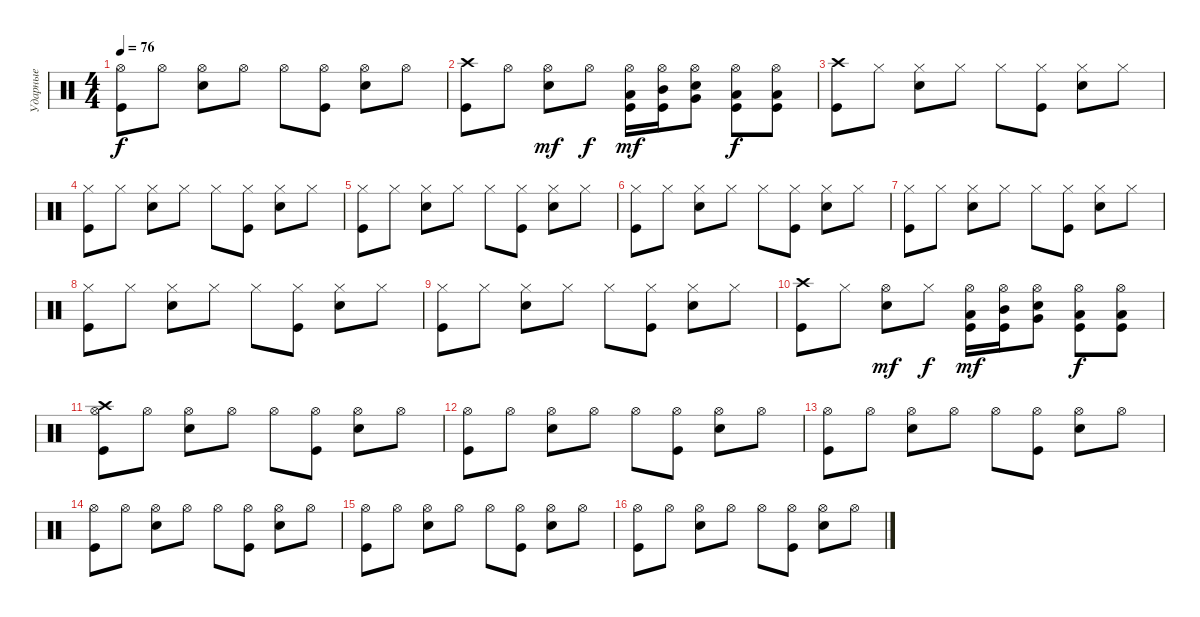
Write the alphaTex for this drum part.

\track ("Ударные" "Ударные") {instrument percussion}
\staff {score}
\articulation defaults
\ts (4 4)
\tempo 76
\clef neutral
\ks c
("Hi-Hat (open)" "Kick (hit)").8{dy f} "Hi-Hat (open)".8 ("Hi-Hat (open)" "Electric Snare (hit)").8 "Hi-Hat (open)".8 "Hi-Hat (open)".8 ("Hi-Hat (open)" "Kick (hit)").8 ("Hi-Hat (open)" "Electric Snare (hit)").8 "Hi-Hat (open)".8 |
("Kick (hit)" "Crash high (hit)").8 "Hi-Hat (open)".8 ("Electric Snare (hit)" "Hi-Hat (open)").8{dy mf} "Hi-Hat (open)".8{dy f} ("Kick (hit)" "Hi-Hat (open)" "Low Tom (hit)").16{dy mf} ("Kick (hit)" "Hi-Hat (open)" "Mid Tom (hit)").16 ("Electric Snare (hit)" "Hi-Hat (open)" "Very Low Tom (hit)").8 ("Kick (hit)" "Hi-Hat (open)" "Low Floor Tom (hit)").8{dy f} ("Kick (hit)" "Hi-Hat (open)" "Low Floor Tom (hit)").8 |
("Crash high (hit)" "Kick (hit)").8 "Hi-Hat (closed)".8 ("Hi-Hat (closed)" "Electric Snare (hit)").8 "Hi-Hat (closed)".8 "Hi-Hat (closed)".8 ("Hi-Hat (closed)" "Kick (hit)").8 ("Hi-Hat (closed)" "Electric Snare (hit)").8 "Hi-Hat (closed)".8 |
("Hi-Hat (closed)" "Kick (hit)").8 "Hi-Hat (closed)".8 ("Hi-Hat (closed)" "Electric Snare (hit)").8 "Hi-Hat (closed)".8 "Hi-Hat (closed)".8 ("Hi-Hat (closed)" "Kick (hit)").8 ("Hi-Hat (closed)" "Electric Snare (hit)").8 "Hi-Hat (closed)".8 |
("Hi-Hat (closed)" "Kick (hit)").8 "Hi-Hat (closed)".8 ("Hi-Hat (closed)" "Electric Snare (hit)").8 "Hi-Hat (closed)".8 "Hi-Hat (closed)".8 ("Hi-Hat (closed)" "Kick (hit)").8 ("Hi-Hat (closed)" "Electric Snare (hit)").8 "Hi-Hat (closed)".8 |
("Hi-Hat (closed)" "Kick (hit)").8 "Hi-Hat (closed)".8 ("Hi-Hat (closed)" "Electric Snare (hit)").8 "Hi-Hat (closed)".8 "Hi-Hat (closed)".8 ("Hi-Hat (closed)" "Kick (hit)").8 ("Hi-Hat (closed)" "Electric Snare (hit)").8 "Hi-Hat (closed)".8 |
("Hi-Hat (closed)" "Kick (hit)").8 "Hi-Hat (closed)".8 ("Hi-Hat (closed)" "Electric Snare (hit)").8 "Hi-Hat (closed)".8 "Hi-Hat (closed)".8 ("Hi-Hat (closed)" "Kick (hit)").8 ("Hi-Hat (closed)" "Electric Snare (hit)").8 "Hi-Hat (closed)".8 |
("Hi-Hat (closed)" "Kick (hit)").8 "Hi-Hat (closed)".8 ("Hi-Hat (closed)" "Electric Snare (hit)").8 "Hi-Hat (closed)".8 "Hi-Hat (closed)".8 ("Hi-Hat (closed)" "Kick (hit)").8 ("Hi-Hat (closed)" "Electric Snare (hit)").8 "Hi-Hat (closed)".8 |
("Hi-Hat (closed)" "Kick (hit)").8 "Hi-Hat (closed)".8 ("Hi-Hat (closed)" "Electric Snare (hit)").8 "Hi-Hat (closed)".8 "Hi-Hat (closed)".8 ("Hi-Hat (closed)" "Kick (hit)").8 ("Hi-Hat (closed)" "Electric Snare (hit)").8 "Hi-Hat (closed)".8 |
("Kick (hit)" "Crash high (hit)").8 "Hi-Hat (closed)".8 ("Electric Snare (hit)" "Hi-Hat (open)").8{dy mf} "Hi-Hat (closed)".8{dy f} ("Kick (hit)" "Hi-Hat (open)" "Low Tom (hit)").16{dy mf} ("Kick (hit)" "Hi-Hat (open)" "Mid Tom (hit)").16 ("Electric Snare (hit)" "Hi-Hat (open)" "Very Low Tom (hit)").8 ("Kick (hit)" "Hi-Hat (open)" "Low Floor Tom (hit)").8{dy f} ("Kick (hit)" "Hi-Hat (open)" "Low Floor Tom (hit)").8 |
("Hi-Hat (open)" "Crash high (hit)" "Kick (hit)").8 "Hi-Hat (open)".8 ("Hi-Hat (open)" "Electric Snare (hit)").8 "Hi-Hat (open)".8 "Hi-Hat (open)".8 ("Hi-Hat (open)" "Kick (hit)").8 ("Hi-Hat (open)" "Electric Snare (hit)").8 "Hi-Hat (open)".8 |
("Hi-Hat (open)" "Kick (hit)").8 "Hi-Hat (open)".8 ("Hi-Hat (open)" "Electric Snare (hit)").8 "Hi-Hat (open)".8 "Hi-Hat (open)".8 ("Hi-Hat (open)" "Kick (hit)").8 ("Hi-Hat (open)" "Electric Snare (hit)").8 "Hi-Hat (open)".8 |
("Hi-Hat (open)" "Kick (hit)").8 "Hi-Hat (open)".8 ("Hi-Hat (open)" "Electric Snare (hit)").8 "Hi-Hat (open)".8 "Hi-Hat (open)".8 ("Hi-Hat (open)" "Kick (hit)").8 ("Hi-Hat (open)" "Electric Snare (hit)").8 "Hi-Hat (open)".8 |
("Hi-Hat (open)" "Kick (hit)").8 "Hi-Hat (open)".8 ("Hi-Hat (open)" "Electric Snare (hit)").8 "Hi-Hat (open)".8 "Hi-Hat (open)".8 ("Hi-Hat (open)" "Kick (hit)").8 ("Hi-Hat (open)" "Electric Snare (hit)").8 "Hi-Hat (open)".8 |
("Hi-Hat (open)" "Kick (hit)").8 "Hi-Hat (open)".8 ("Hi-Hat (open)" "Electric Snare (hit)").8 "Hi-Hat (open)".8 "Hi-Hat (open)".8 ("Hi-Hat (open)" "Kick (hit)").8 ("Hi-Hat (open)" "Electric Snare (hit)").8 "Hi-Hat (open)".8 |
("Hi-Hat (open)" "Kick (hit)").8 "Hi-Hat (open)".8 ("Hi-Hat (open)" "Electric Snare (hit)").8 "Hi-Hat (open)".8 "Hi-Hat (open)".8 ("Hi-Hat (open)" "Kick (hit)").8 ("Hi-Hat (open)" "Electric Snare (hit)").8 "Hi-Hat (open)".8
